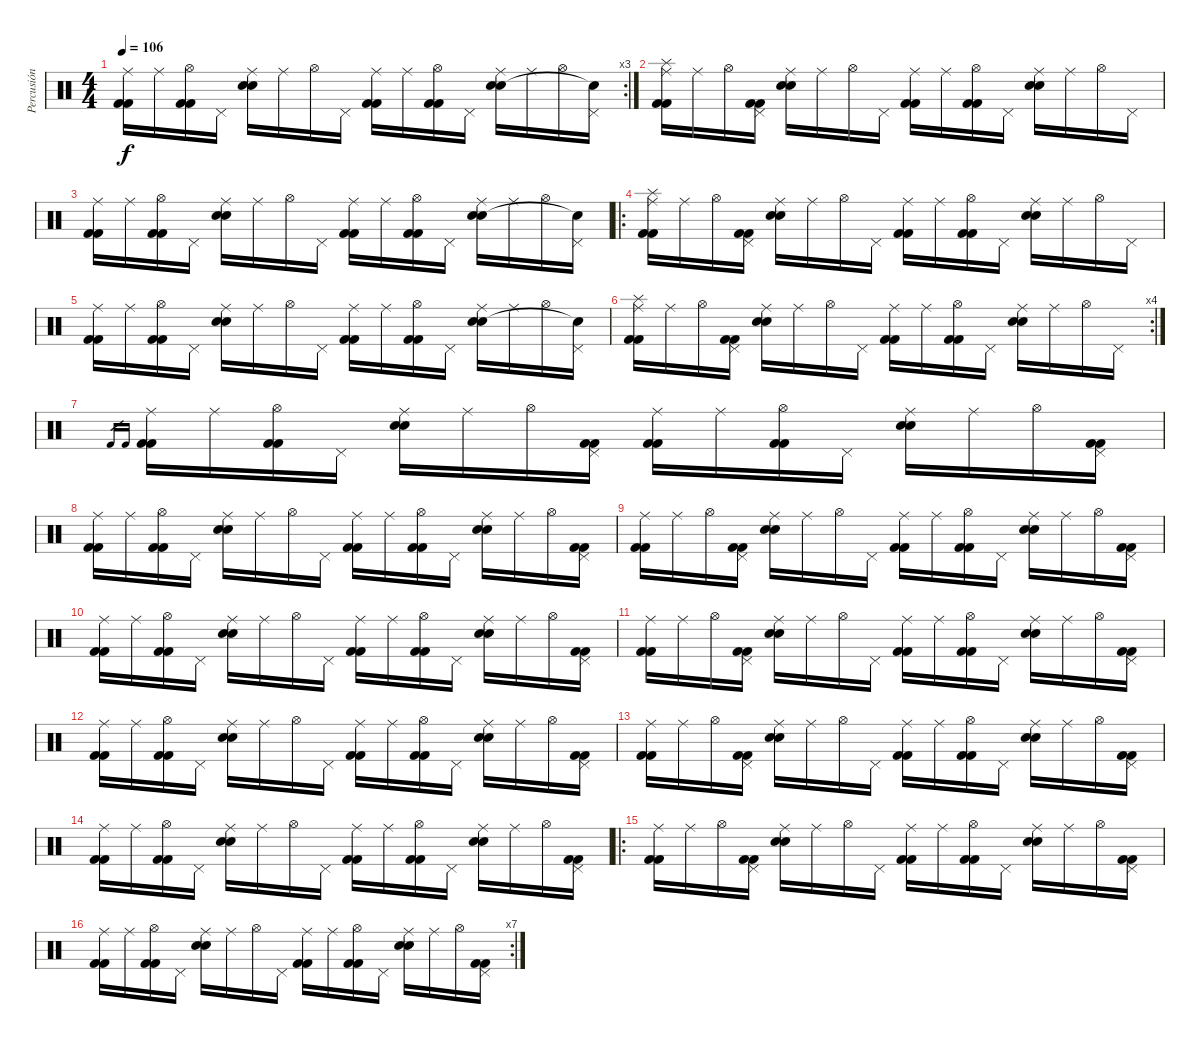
\track ("Percusión" "Percusión") {instrument percussion}
\staff {score}
\articulation defaults
\rc 3
\ts (4 4)
\tempo 106
\clef neutral
\ks c
("Ride (middle)" "Kick (hit) 2" "Kick (hit) 2").16{dy f} "Ride (middle)".16 ("Hi-Hat (open)" "Kick (hit) 2" "Kick (hit) 2").16 "Pedal Hi-Hat (hit)".16 ("Ride (middle)" "Electric Snare (hit)" "Electric Snare (hit)").16 "Ride (middle)".16 "Hi-Hat (open)".16 "Pedal Hi-Hat (hit)".16 ("Ride (middle)" "Kick (hit) 2" "Kick (hit) 2").16 "Ride (middle)".16 ("Hi-Hat (open)" "Kick (hit) 2" "Kick (hit) 2").16 "Pedal Hi-Hat (hit)".16 ("Ride (middle)" "Electric Snare (hit)" "Electric Snare (hit)").16 "Ride (middle)".16 "Hi-Hat (open)".16 ("Pedal Hi-Hat (hit)" "Snare (hit)"{t}).16 |
("Ride (middle)" "Splash (hit)" "Kick (hit) 2" "Kick (hit) 2").16 "Ride (middle)".16 "Hi-Hat (open)".16 ("Pedal Hi-Hat (hit)" "Kick (hit) 2" "Kick (hit) 2").16 ("Ride (middle)" "Electric Snare (hit)" "Electric Snare (hit)").16 "Ride (middle)".16 "Hi-Hat (open)".16 "Pedal Hi-Hat (hit)".16 ("Ride (middle)" "Kick (hit) 2" "Kick (hit) 2").16 "Ride (middle)".16 ("Hi-Hat (open)" "Kick (hit) 2" "Kick (hit) 2").16 "Pedal Hi-Hat (hit)".16 ("Ride (middle)" "Electric Snare (hit)" "Electric Snare (hit)").16 "Ride (middle)".16 "Hi-Hat (open)".16 "Pedal Hi-Hat (hit)".16 |
("Ride (middle)" "Kick (hit) 2" "Kick (hit) 2").16 "Ride (middle)".16 ("Hi-Hat (open)" "Kick (hit) 2" "Kick (hit) 2").16 "Pedal Hi-Hat (hit)".16 ("Ride (middle)" "Electric Snare (hit)" "Electric Snare (hit)").16 "Ride (middle)".16 "Hi-Hat (open)".16 "Pedal Hi-Hat (hit)".16 ("Ride (middle)" "Kick (hit) 2" "Kick (hit) 2").16 "Ride (middle)".16 ("Hi-Hat (open)" "Kick (hit) 2" "Kick (hit) 2").16 "Pedal Hi-Hat (hit)".16 ("Ride (middle)" "Electric Snare (hit)" "Electric Snare (hit)").16 "Ride (middle)".16 "Hi-Hat (open)".16 ("Pedal Hi-Hat (hit)" "Snare (hit)"{t}).16 |
\ro
("Ride (middle)" "Splash (hit)" "Kick (hit) 2" "Kick (hit) 2").16 "Ride (middle)".16 "Hi-Hat (open)".16 ("Pedal Hi-Hat (hit)" "Kick (hit) 2" "Kick (hit) 2").16 ("Ride (middle)" "Electric Snare (hit)" "Electric Snare (hit)").16 "Ride (middle)".16 "Hi-Hat (open)".16 "Pedal Hi-Hat (hit)".16 ("Ride (middle)" "Kick (hit) 2" "Kick (hit) 2").16 "Ride (middle)".16 ("Hi-Hat (open)" "Kick (hit) 2" "Kick (hit) 2").16 "Pedal Hi-Hat (hit)".16 ("Ride (middle)" "Electric Snare (hit)" "Electric Snare (hit)").16 "Ride (middle)".16 "Hi-Hat (open)".16 "Pedal Hi-Hat (hit)".16 |
("Ride (middle)" "Kick (hit) 2" "Kick (hit) 2").16 "Ride (middle)".16 ("Hi-Hat (open)" "Kick (hit) 2" "Kick (hit) 2").16 "Pedal Hi-Hat (hit)".16 ("Ride (middle)" "Electric Snare (hit)" "Electric Snare (hit)").16 "Ride (middle)".16 "Hi-Hat (open)".16 "Pedal Hi-Hat (hit)".16 ("Ride (middle)" "Kick (hit) 2" "Kick (hit) 2").16 "Ride (middle)".16 ("Hi-Hat (open)" "Kick (hit) 2" "Kick (hit) 2").16 "Pedal Hi-Hat (hit)".16 ("Ride (middle)" "Electric Snare (hit)" "Electric Snare (hit)").16 "Ride (middle)".16 "Hi-Hat (open)".16 ("Pedal Hi-Hat (hit)" "Snare (hit)"{t}).16 |
\rc 4
("Ride (middle)" "Splash (hit)" "Kick (hit) 2" "Kick (hit) 2").16 "Ride (middle)".16 "Hi-Hat (open)".16 ("Pedal Hi-Hat (hit)" "Kick (hit) 2" "Kick (hit) 2").16 ("Ride (middle)" "Electric Snare (hit)" "Electric Snare (hit)").16 "Ride (middle)".16 "Hi-Hat (open)".16 "Pedal Hi-Hat (hit)".16 ("Ride (middle)" "Kick (hit) 2" "Kick (hit) 2").16 "Ride (middle)".16 ("Hi-Hat (open)" "Kick (hit) 2" "Kick (hit) 2").16 "Pedal Hi-Hat (hit)".16 ("Ride (middle)" "Electric Snare (hit)" "Electric Snare (hit)").16 "Ride (middle)".16 "Hi-Hat (open)".16 "Pedal Hi-Hat (hit)".16 |
"Kick (hit) 2".16{gr} "Kick (hit) 2".16{gr} ("Ride (middle)" "Kick (hit) 2" "Kick (hit) 2").16 "Ride (middle)".16 ("Hi-Hat (open)" "Kick (hit) 2" "Kick (hit) 2").16 "Pedal Hi-Hat (hit)".16 ("Ride (middle)" "Electric Snare (hit)" "Electric Snare (hit)").16 "Ride (middle)".16 "Hi-Hat (open)".16 ("Pedal Hi-Hat (hit)" "Kick (hit) 2" "Kick (hit) 2").16 ("Ride (middle)" "Kick (hit) 2" "Kick (hit) 2").16 "Ride (middle)".16 ("Hi-Hat (open)" "Kick (hit) 2" "Kick (hit) 2").16 "Pedal Hi-Hat (hit)".16 ("Ride (middle)" "Electric Snare (hit)" "Electric Snare (hit)").16 "Ride (middle)".16 "Hi-Hat (open)".16 ("Pedal Hi-Hat (hit)" "Kick (hit) 2" "Kick (hit) 2").16 |
("Ride (middle)" "Kick (hit) 2" "Kick (hit) 2").16 "Ride (middle)".16 ("Hi-Hat (open)" "Kick (hit) 2" "Kick (hit) 2").16 "Pedal Hi-Hat (hit)".16 ("Ride (middle)" "Electric Snare (hit)" "Electric Snare (hit)").16 "Ride (middle)".16 "Hi-Hat (open)".16 "Pedal Hi-Hat (hit)".16 ("Ride (middle)" "Kick (hit) 2" "Kick (hit) 2").16 "Ride (middle)".16 ("Hi-Hat (open)" "Kick (hit) 2" "Kick (hit) 2").16 "Pedal Hi-Hat (hit)".16 ("Ride (middle)" "Electric Snare (hit)" "Electric Snare (hit)").16 "Ride (middle)".16 "Hi-Hat (open)".16 ("Pedal Hi-Hat (hit)" "Kick (hit) 2" "Kick (hit) 2").16 |
("Ride (middle)" "Kick (hit) 2" "Kick (hit) 2").16 "Ride (middle)".16 "Hi-Hat (open)".16 ("Pedal Hi-Hat (hit)" "Kick (hit) 2" "Kick (hit) 2").16 ("Ride (middle)" "Electric Snare (hit)" "Electric Snare (hit)").16 "Ride (middle)".16 "Hi-Hat (open)".16 "Pedal Hi-Hat (hit)".16 ("Ride (middle)" "Kick (hit) 2" "Kick (hit) 2").16 "Ride (middle)".16 ("Hi-Hat (open)" "Kick (hit) 2" "Kick (hit) 2").16 "Pedal Hi-Hat (hit)".16 ("Ride (middle)" "Electric Snare (hit)" "Electric Snare (hit)").16 "Ride (middle)".16 "Hi-Hat (open)".16 ("Pedal Hi-Hat (hit)" "Kick (hit) 2" "Kick (hit) 2").16 |
("Ride (middle)" "Kick (hit) 2" "Kick (hit) 2").16 "Ride (middle)".16 ("Hi-Hat (open)" "Kick (hit) 2" "Kick (hit) 2").16 "Pedal Hi-Hat (hit)".16 ("Ride (middle)" "Electric Snare (hit)" "Electric Snare (hit)").16 "Ride (middle)".16 "Hi-Hat (open)".16 "Pedal Hi-Hat (hit)".16 ("Ride (middle)" "Kick (hit) 2" "Kick (hit) 2").16 "Ride (middle)".16 ("Hi-Hat (open)" "Kick (hit) 2" "Kick (hit) 2").16 "Pedal Hi-Hat (hit)".16 ("Ride (middle)" "Electric Snare (hit)" "Electric Snare (hit)").16 "Ride (middle)".16 "Hi-Hat (open)".16 ("Pedal Hi-Hat (hit)" "Kick (hit) 2" "Kick (hit) 2").16 |
("Ride (middle)" "Kick (hit) 2" "Kick (hit) 2").16 "Ride (middle)".16 "Hi-Hat (open)".16 ("Pedal Hi-Hat (hit)" "Kick (hit) 2" "Kick (hit) 2").16 ("Ride (middle)" "Electric Snare (hit)" "Electric Snare (hit)").16 "Ride (middle)".16 "Hi-Hat (open)".16 "Pedal Hi-Hat (hit)".16 ("Ride (middle)" "Kick (hit) 2" "Kick (hit) 2").16 "Ride (middle)".16 ("Hi-Hat (open)" "Kick (hit) 2" "Kick (hit) 2").16 "Pedal Hi-Hat (hit)".16 ("Ride (middle)" "Electric Snare (hit)" "Electric Snare (hit)").16 "Ride (middle)".16 "Hi-Hat (open)".16 ("Pedal Hi-Hat (hit)" "Kick (hit) 2" "Kick (hit) 2").16 |
("Ride (middle)" "Kick (hit) 2" "Kick (hit) 2").16 "Ride (middle)".16 ("Hi-Hat (open)" "Kick (hit) 2" "Kick (hit) 2").16 "Pedal Hi-Hat (hit)".16 ("Ride (middle)" "Electric Snare (hit)" "Electric Snare (hit)").16 "Ride (middle)".16 "Hi-Hat (open)".16 "Pedal Hi-Hat (hit)".16 ("Ride (middle)" "Kick (hit) 2" "Kick (hit) 2").16 "Ride (middle)".16 ("Hi-Hat (open)" "Kick (hit) 2" "Kick (hit) 2").16 "Pedal Hi-Hat (hit)".16 ("Ride (middle)" "Electric Snare (hit)" "Electric Snare (hit)").16 "Ride (middle)".16 "Hi-Hat (open)".16 ("Pedal Hi-Hat (hit)" "Kick (hit) 2" "Kick (hit) 2").16 |
("Ride (middle)" "Kick (hit) 2" "Kick (hit) 2").16 "Ride (middle)".16 "Hi-Hat (open)".16 ("Pedal Hi-Hat (hit)" "Kick (hit) 2" "Kick (hit) 2").16 ("Ride (middle)" "Electric Snare (hit)" "Electric Snare (hit)").16 "Ride (middle)".16 "Hi-Hat (open)".16 "Pedal Hi-Hat (hit)".16 ("Ride (middle)" "Kick (hit) 2" "Kick (hit) 2").16 "Ride (middle)".16 ("Hi-Hat (open)" "Kick (hit) 2" "Kick (hit) 2").16 "Pedal Hi-Hat (hit)".16 ("Ride (middle)" "Electric Snare (hit)" "Electric Snare (hit)").16 "Ride (middle)".16 "Hi-Hat (open)".16 ("Pedal Hi-Hat (hit)" "Kick (hit) 2" "Kick (hit) 2").16 |
("Ride (middle)" "Kick (hit) 2" "Kick (hit) 2").16 "Ride (middle)".16 ("Hi-Hat (open)" "Kick (hit) 2" "Kick (hit) 2").16 "Pedal Hi-Hat (hit)".16 ("Ride (middle)" "Electric Snare (hit)" "Electric Snare (hit)").16 "Ride (middle)".16 "Hi-Hat (open)".16 "Pedal Hi-Hat (hit)".16 ("Ride (middle)" "Kick (hit) 2" "Kick (hit) 2").16 "Ride (middle)".16 ("Hi-Hat (open)" "Kick (hit) 2" "Kick (hit) 2").16 "Pedal Hi-Hat (hit)".16 ("Ride (middle)" "Electric Snare (hit)" "Electric Snare (hit)").16 "Ride (middle)".16 "Hi-Hat (open)".16 ("Pedal Hi-Hat (hit)" "Kick (hit) 2" "Kick (hit) 2").16 |
\ro
("Ride (middle)" "Kick (hit) 2" "Kick (hit) 2").16 "Ride (middle)".16 "Hi-Hat (open)".16 ("Pedal Hi-Hat (hit)" "Kick (hit) 2" "Kick (hit) 2").16 ("Ride (middle)" "Electric Snare (hit)" "Electric Snare (hit)").16 "Ride (middle)".16 "Hi-Hat (open)".16 "Pedal Hi-Hat (hit)".16 ("Ride (middle)" "Kick (hit) 2" "Kick (hit) 2").16 "Ride (middle)".16 ("Hi-Hat (open)" "Kick (hit) 2" "Kick (hit) 2").16 "Pedal Hi-Hat (hit)".16 ("Ride (middle)" "Electric Snare (hit)" "Electric Snare (hit)").16 "Ride (middle)".16 "Hi-Hat (open)".16 ("Pedal Hi-Hat (hit)" "Kick (hit) 2" "Kick (hit) 2").16 |
\rc 7
("Ride (middle)" "Kick (hit) 2" "Kick (hit) 2").16 "Ride (middle)".16 ("Hi-Hat (open)" "Kick (hit) 2" "Kick (hit) 2").16 "Pedal Hi-Hat (hit)".16 ("Ride (middle)" "Electric Snare (hit)" "Electric Snare (hit)").16 "Ride (middle)".16 "Hi-Hat (open)".16 "Pedal Hi-Hat (hit)".16 ("Ride (middle)" "Kick (hit) 2" "Kick (hit) 2").16 "Ride (middle)".16 ("Hi-Hat (open)" "Kick (hit) 2" "Kick (hit) 2").16 "Pedal Hi-Hat (hit)".16 ("Ride (middle)" "Electric Snare (hit)" "Electric Snare (hit)").16 "Ride (middle)".16 "Hi-Hat (open)".16 ("Pedal Hi-Hat (hit)" "Kick (hit) 2" "Kick (hit) 2").16
